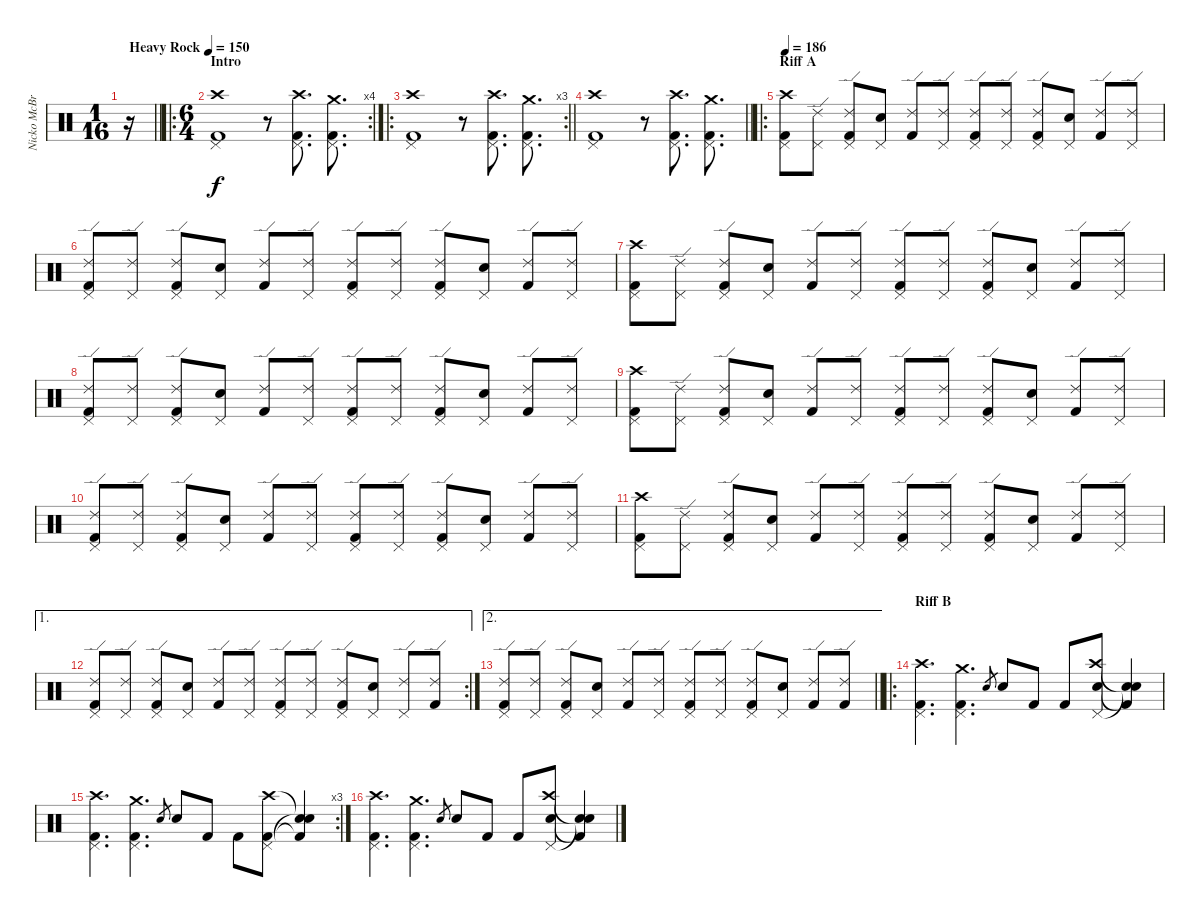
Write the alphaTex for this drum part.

\track ("Nicko McBrain" "Nicko McBr") {instrument percussion}
\staff {score}
\articulation defaults
\ts (1 16)
\tempo (150 "Heavy Rock")
\clef neutral
\barLineRight lightlight
\ks c
r.16{dy f} |
\ro
\rc 4
\ts (6 4)
\section ("" "Intro")
("Kick (hit) 2" "Pedal Hi-Hat (hit)" "Crash high (hit)").1 r.8 ("Kick (hit) 2" "Pedal Hi-Hat (hit)" "Crash high (hit)").8{d} ("Kick (hit) 2" "Pedal Hi-Hat (hit)" "Crash medium (hit)").8{d} |
\ro
\rc 3
\barLineRight lightlight
("Kick (hit) 2" "Pedal Hi-Hat (hit)" "Crash high (hit)").1 r.8 ("Kick (hit) 2" "Pedal Hi-Hat (hit)" "Crash high (hit)").8{d} ("Kick (hit) 2" "Pedal Hi-Hat (hit)" "Crash medium (hit)").8{d} |
\barLineRight lightlight
("Kick (hit) 2" "Pedal Hi-Hat (hit)" "Crash high (hit)").1 r.8 ("Kick (hit) 2" "Pedal Hi-Hat (hit)" "Crash high (hit)").8{d} ("Kick (hit) 2" "Pedal Hi-Hat (hit)" "Crash medium (hit)").8{d} |
\ro
\section ("" "Riff A")
\tempo 186
("Kick (hit) 2" "Pedal Hi-Hat (hit)" "Crash high (hit)").8 ("Pedal Hi-Hat (hit)" "Ride (edge) 2").8 ("Kick (hit) 2" "Pedal Hi-Hat (hit)" "Ride (edge) 2").8 ("Snare (hit) 2" "Pedal Hi-Hat (hit)").8 ("Kick (hit) 2" "Ride (edge) 2").8 ("Pedal Hi-Hat (hit)" "Ride (edge) 2").8 ("Kick (hit) 2" "Pedal Hi-Hat (hit)" "Ride (edge) 2").8 ("Pedal Hi-Hat (hit)" "Ride (edge) 2").8 ("Kick (hit) 2" "Pedal Hi-Hat (hit)" "Ride (edge) 2").8 ("Snare (hit) 2" "Pedal Hi-Hat (hit)").8 ("Kick (hit) 2" "Ride (edge) 2").8 ("Pedal Hi-Hat (hit)" "Ride (edge) 2").8 |
("Kick (hit) 2" "Pedal Hi-Hat (hit)" "Ride (edge) 2").8 ("Pedal Hi-Hat (hit)" "Ride (edge) 2").8 ("Kick (hit) 2" "Pedal Hi-Hat (hit)" "Ride (edge) 2").8 ("Snare (hit) 2" "Pedal Hi-Hat (hit)").8 ("Kick (hit) 2" "Ride (edge) 2").8 ("Pedal Hi-Hat (hit)" "Ride (edge) 2").8 ("Kick (hit) 2" "Pedal Hi-Hat (hit)" "Ride (edge) 2").8 ("Pedal Hi-Hat (hit)" "Ride (edge) 2").8 ("Kick (hit) 2" "Pedal Hi-Hat (hit)" "Ride (edge) 2").8 ("Snare (hit) 2" "Pedal Hi-Hat (hit)").8 ("Kick (hit) 2" "Ride (edge) 2").8 ("Pedal Hi-Hat (hit)" "Ride (edge) 2").8 |
("Kick (hit) 2" "Pedal Hi-Hat (hit)" "Crash high (hit)").8 ("Pedal Hi-Hat (hit)" "Ride (edge) 2").8 ("Kick (hit) 2" "Pedal Hi-Hat (hit)" "Ride (edge) 2").8 ("Snare (hit) 2" "Pedal Hi-Hat (hit)").8 ("Kick (hit) 2" "Ride (edge) 2").8 ("Pedal Hi-Hat (hit)" "Ride (edge) 2").8 ("Kick (hit) 2" "Pedal Hi-Hat (hit)" "Ride (edge) 2").8 ("Pedal Hi-Hat (hit)" "Ride (edge) 2").8 ("Kick (hit) 2" "Pedal Hi-Hat (hit)" "Ride (edge) 2").8 ("Snare (hit) 2" "Pedal Hi-Hat (hit)").8 ("Kick (hit) 2" "Ride (edge) 2").8 ("Pedal Hi-Hat (hit)" "Ride (edge) 2").8 |
("Kick (hit) 2" "Pedal Hi-Hat (hit)" "Ride (edge) 2").8 ("Pedal Hi-Hat (hit)" "Ride (edge) 2").8 ("Kick (hit) 2" "Pedal Hi-Hat (hit)" "Ride (edge) 2").8 ("Snare (hit) 2" "Pedal Hi-Hat (hit)").8 ("Kick (hit) 2" "Ride (edge) 2").8 ("Pedal Hi-Hat (hit)" "Ride (edge) 2").8 ("Kick (hit) 2" "Pedal Hi-Hat (hit)" "Ride (edge) 2").8 ("Pedal Hi-Hat (hit)" "Ride (edge) 2").8 ("Kick (hit) 2" "Pedal Hi-Hat (hit)" "Ride (edge) 2").8 ("Snare (hit) 2" "Pedal Hi-Hat (hit)").8 ("Kick (hit) 2" "Ride (edge) 2").8 ("Pedal Hi-Hat (hit)" "Ride (edge) 2").8 |
("Kick (hit) 2" "Pedal Hi-Hat (hit)" "Crash high (hit)").8 ("Pedal Hi-Hat (hit)" "Ride (edge) 2").8 ("Kick (hit) 2" "Pedal Hi-Hat (hit)" "Ride (edge) 2").8 ("Snare (hit) 2" "Pedal Hi-Hat (hit)").8 ("Kick (hit) 2" "Ride (edge) 2").8 ("Pedal Hi-Hat (hit)" "Ride (edge) 2").8 ("Kick (hit) 2" "Pedal Hi-Hat (hit)" "Ride (edge) 2").8 ("Pedal Hi-Hat (hit)" "Ride (edge) 2").8 ("Kick (hit) 2" "Pedal Hi-Hat (hit)" "Ride (edge) 2").8 ("Snare (hit) 2" "Pedal Hi-Hat (hit)").8 ("Kick (hit) 2" "Ride (edge) 2").8 ("Pedal Hi-Hat (hit)" "Ride (edge) 2").8 |
("Kick (hit) 2" "Pedal Hi-Hat (hit)" "Ride (edge) 2").8 ("Pedal Hi-Hat (hit)" "Ride (edge) 2").8 ("Kick (hit) 2" "Pedal Hi-Hat (hit)" "Ride (edge) 2").8 ("Snare (hit) 2" "Pedal Hi-Hat (hit)").8 ("Kick (hit) 2" "Ride (edge) 2").8 ("Pedal Hi-Hat (hit)" "Ride (edge) 2").8 ("Kick (hit) 2" "Pedal Hi-Hat (hit)" "Ride (edge) 2").8 ("Pedal Hi-Hat (hit)" "Ride (edge) 2").8 ("Kick (hit) 2" "Pedal Hi-Hat (hit)" "Ride (edge) 2").8 ("Snare (hit) 2" "Pedal Hi-Hat (hit)").8 ("Kick (hit) 2" "Ride (edge) 2").8 ("Pedal Hi-Hat (hit)" "Ride (edge) 2").8 |
("Kick (hit) 2" "Pedal Hi-Hat (hit)" "Crash high (hit)").8 ("Pedal Hi-Hat (hit)" "Ride (edge) 2").8 ("Kick (hit) 2" "Pedal Hi-Hat (hit)" "Ride (edge) 2").8 ("Snare (hit) 2" "Pedal Hi-Hat (hit)").8 ("Kick (hit) 2" "Ride (edge) 2").8 ("Pedal Hi-Hat (hit)" "Ride (edge) 2").8 ("Kick (hit) 2" "Pedal Hi-Hat (hit)" "Ride (edge) 2").8 ("Pedal Hi-Hat (hit)" "Ride (edge) 2").8 ("Kick (hit) 2" "Pedal Hi-Hat (hit)" "Ride (edge) 2").8 ("Snare (hit) 2" "Pedal Hi-Hat (hit)").8 ("Kick (hit) 2" "Ride (edge) 2").8 ("Pedal Hi-Hat (hit)" "Ride (edge) 2").8 |
\ae 1
\rc 2
("Kick (hit) 2" "Pedal Hi-Hat (hit)" "Ride (edge) 2").8 ("Pedal Hi-Hat (hit)" "Ride (edge) 2").8 ("Kick (hit) 2" "Pedal Hi-Hat (hit)" "Ride (edge) 2").8 ("Snare (hit) 2" "Pedal Hi-Hat (hit)").8 ("Kick (hit) 2" "Ride (edge) 2").8 ("Pedal Hi-Hat (hit)" "Ride (edge) 2").8 ("Kick (hit) 2" "Pedal Hi-Hat (hit)" "Ride (edge) 2").8 ("Pedal Hi-Hat (hit)" "Ride (edge) 2").8 ("Kick (hit) 2" "Pedal Hi-Hat (hit)" "Ride (edge) 2").8 ("Snare (hit) 2" "Pedal Hi-Hat (hit)").8 ("Pedal Hi-Hat (hit)" "Ride (edge) 2").8 ("Kick (hit) 2" "Ride (edge) 2").8 |
\ae 2
\barLineRight lightlight
("Kick (hit) 2" "Pedal Hi-Hat (hit)" "Ride (edge) 2").8 ("Pedal Hi-Hat (hit)" "Ride (edge) 2").8 ("Kick (hit) 2" "Pedal Hi-Hat (hit)" "Ride (edge) 2").8 ("Snare (hit) 2" "Pedal Hi-Hat (hit)").8 ("Kick (hit) 2" "Ride (edge) 2").8 ("Pedal Hi-Hat (hit)" "Ride (edge) 2").8 ("Kick (hit) 2" "Pedal Hi-Hat (hit)" "Ride (edge) 2").8 ("Pedal Hi-Hat (hit)" "Ride (edge) 2").8 ("Kick (hit) 2" "Pedal Hi-Hat (hit)" "Ride (edge) 2").8 ("Snare (hit) 2" "Pedal Hi-Hat (hit)").8 ("Kick (hit) 2" "Ride (edge) 2").8 ("Kick (hit) 2" "Ride (edge) 2").8 |
\ro
\section ("" "Riff B")
("Kick (hit) 2" "Pedal Hi-Hat (hit)" "Crash high (hit)").4{d} ("Kick (hit) 2" "Pedal Hi-Hat (hit)" "Crash medium (hit)").4{d} "Snare (hit) 2".8{gr} "Snare (hit) 2".8 "Kick (hit) 2".8 "Kick (hit) 2".8 ("Snare (hit) 2" "Pedal Hi-Hat (hit)" "Crash high (hit)").8 ("Kick (hit) 2"{t} "Snare (hit)"{t} "Snare (hit)"{t}).4 |
\rc 3
("Kick (hit) 2" "Pedal Hi-Hat (hit)" "Crash high (hit)").4{d} ("Kick (hit) 2" "Pedal Hi-Hat (hit)" "Crash medium (hit)").4{d} "Snare (hit) 2".8{gr} "Snare (hit) 2".8 "Kick (hit) 2".8 "Kick (hit) 2".8 ("Kick (hit) 2" "Pedal Hi-Hat (hit)" "Crash high (hit)").8 ("Kick (hit) 2"{t} "Snare (hit)"{t} "Snare (hit)"{t}).4 |
("Kick (hit) 2" "Pedal Hi-Hat (hit)" "Crash high (hit)").4{d} ("Kick (hit) 2" "Pedal Hi-Hat (hit)" "Crash medium (hit)").4{d} "Snare (hit) 2".8{gr} "Snare (hit) 2".8 "Kick (hit) 2".8 "Kick (hit) 2".8 ("Snare (hit) 2" "Pedal Hi-Hat (hit)" "Crash high (hit)").8 ("Kick (hit) 2"{t} "Snare (hit)"{t} "Snare (hit)"{t}).4
